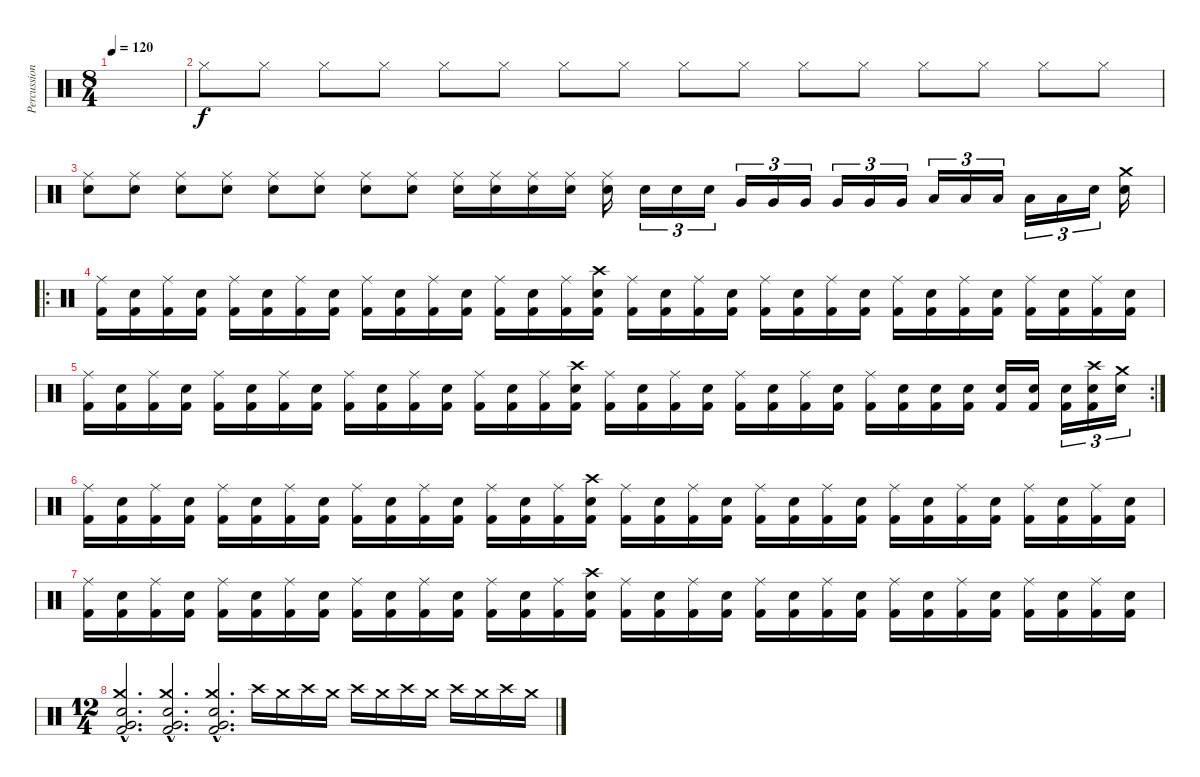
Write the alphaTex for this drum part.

\track ("Percussions" "Percussion") {instrument percussion}
\staff {score}
\articulation defaults
\ts (8 4)
\tempo 120
\clef neutral
\ks c
|
"Hi-Hat (closed)".8 "Hi-Hat (closed)".8 "Hi-Hat (closed)".8 "Hi-Hat (closed)".8 "Hi-Hat (closed)".8 "Hi-Hat (closed)".8 "Hi-Hat (closed)".8 "Hi-Hat (closed)".8 "Hi-Hat (closed)".8 "Hi-Hat (closed)".8 "Hi-Hat (closed)".8 "Hi-Hat (closed)".8 "Hi-Hat (closed)".8 "Hi-Hat (closed)".8 "Hi-Hat (closed)".8 "Hi-Hat (closed)".8 |
("Electric Snare (hit)" "Ride (middle)").8 ("Electric Snare (hit)" "Ride (middle)").8 ("Electric Snare (hit)" "Ride (middle)").8 ("Electric Snare (hit)" "Ride (middle)").8 ("Electric Snare (hit)" "Ride (middle)").8 ("Electric Snare (hit)" "Ride (middle)").8 ("Electric Snare (hit)" "Ride (middle)").8 ("Electric Snare (hit)" "Ride (middle)").8 ("Electric Snare (hit)" "Ride (middle)").16 ("Electric Snare (hit)" "Ride (middle)").16 ("Electric Snare (hit)" "Ride (middle)").16 ("Electric Snare (hit)" "Ride (middle)").16 ("Electric Snare (hit)" "Ride (middle)").16 "Electric Snare (hit)".16{tu (3 2)} "Electric Snare (hit)".16{tu (3 2)} "Electric Snare (hit)".16{tu (3 2)} "Very Low Tom (hit)".16{tu (3 2)} "Very Low Tom (hit)".16{tu (3 2)} "Very Low Tom (hit)".16{tu (3 2)} "Very Low Tom (hit)".16{tu (3 2)} "Very Low Tom (hit)".16{tu (3 2)} "Very Low Tom (hit)".16{tu (3 2)} "Low Tom (hit)".16{tu (3 2)} "Low Tom (hit)".16{tu (3 2)} "Low Tom (hit)".16{tu (3 2)} "Low Tom (hit)".16{tu (3 2)} "Low Tom (hit)".16{tu (3 2)} "Electric Snare (hit)".16{tu (3 2)} ("Electric Snare (hit)" "Crash medium (hit)").16 |
\ro
("Kick (hit) 2" "Ride (middle)").16 ("Kick (hit) 2" "Electric Snare (hit)").16 ("Kick (hit) 2" "Ride (middle)").16 ("Kick (hit) 2" "Electric Snare (hit)").16 ("Kick (hit) 2" "Ride (middle)").16 ("Kick (hit) 2" "Electric Snare (hit)").16 ("Kick (hit) 2" "Ride (middle)").16 ("Kick (hit) 2" "Electric Snare (hit)").16 ("Kick (hit) 2" "Ride (middle)").16 ("Kick (hit) 2" "Electric Snare (hit)").16 ("Kick (hit) 2" "Ride (middle)").16 ("Kick (hit) 2" "Electric Snare (hit)").16 ("Kick (hit) 2" "Ride (middle)").16 ("Kick (hit) 2" "Electric Snare (hit)").16 ("Kick (hit) 2" "Ride (middle)").16 ("Kick (hit) 2" "Electric Snare (hit)" "Crash high (hit)").16 ("Kick (hit) 2" "Ride (middle)").16 ("Kick (hit) 2" "Electric Snare (hit)").16 ("Kick (hit) 2" "Ride (middle)").16 ("Kick (hit) 2" "Electric Snare (hit)").16 ("Kick (hit) 2" "Ride (middle)").16 ("Kick (hit) 2" "Electric Snare (hit)").16 ("Kick (hit) 2" "Ride (middle)").16 ("Kick (hit) 2" "Electric Snare (hit)").16 ("Kick (hit) 2" "Ride (middle)").16 ("Kick (hit) 2" "Electric Snare (hit)").16 ("Kick (hit) 2" "Ride (middle)").16 ("Kick (hit) 2" "Electric Snare (hit)").16 ("Kick (hit) 2" "Ride (middle)").16 ("Kick (hit) 2" "Electric Snare (hit)").16 ("Kick (hit) 2" "Ride (middle)").16 ("Kick (hit) 2" "Electric Snare (hit)").16 |
\rc 2
("Kick (hit) 2" "Ride (middle)").16 ("Kick (hit) 2" "Electric Snare (hit)").16 ("Kick (hit) 2" "Ride (middle)").16 ("Kick (hit) 2" "Electric Snare (hit)").16 ("Kick (hit) 2" "Ride (middle)").16 ("Kick (hit) 2" "Electric Snare (hit)").16 ("Kick (hit) 2" "Ride (middle)").16 ("Kick (hit) 2" "Electric Snare (hit)").16 ("Kick (hit) 2" "Ride (middle)").16 ("Kick (hit) 2" "Electric Snare (hit)").16 ("Kick (hit) 2" "Ride (middle)").16 ("Kick (hit) 2" "Electric Snare (hit)").16 ("Kick (hit) 2" "Ride (middle)").16 ("Kick (hit) 2" "Electric Snare (hit)").16 ("Kick (hit) 2" "Ride (middle)").16 ("Kick (hit) 2" "Electric Snare (hit)" "Crash high (hit)").16 ("Kick (hit) 2" "Ride (middle)").16 ("Kick (hit) 2" "Electric Snare (hit)").16 ("Kick (hit) 2" "Ride (middle)").16 ("Kick (hit) 2" "Electric Snare (hit)").16 ("Kick (hit) 2" "Ride (middle)").16 ("Kick (hit) 2" "Electric Snare (hit)").16 ("Kick (hit) 2" "Ride (middle)").16 ("Kick (hit) 2" "Electric Snare (hit)").16 ("Kick (hit) 2" "Ride (middle)").16 ("Kick (hit) 2" "Electric Snare (hit)").16 ("Kick (hit) 2" "Electric Snare (hit)").16 ("Kick (hit) 2" "Electric Snare (hit)").16 ("Kick (hit) 2" "Electric Snare (hit)").16 ("Kick (hit) 2" "Electric Snare (hit)").16 ("Kick (hit) 2" "Electric Snare (hit)").16{tu (3 2)} ("Kick (hit) 2" "Crash high (hit)" "Electric Snare (hit)").16{tu (3 2)} ("Crash medium (hit)" "Electric Snare (hit)").16{tu (3 2)} |
("Kick (hit) 2" "Ride (middle)").16 ("Kick (hit) 2" "Electric Snare (hit)").16 ("Kick (hit) 2" "Ride (middle)").16 ("Kick (hit) 2" "Electric Snare (hit)").16 ("Kick (hit) 2" "Ride (middle)").16 ("Kick (hit) 2" "Electric Snare (hit)").16 ("Kick (hit) 2" "Ride (middle)").16 ("Kick (hit) 2" "Electric Snare (hit)").16 ("Kick (hit) 2" "Ride (middle)").16 ("Kick (hit) 2" "Electric Snare (hit)").16 ("Kick (hit) 2" "Ride (middle)").16 ("Kick (hit) 2" "Electric Snare (hit)").16 ("Kick (hit) 2" "Ride (middle)").16 ("Kick (hit) 2" "Electric Snare (hit)").16 ("Kick (hit) 2" "Ride (middle)").16 ("Kick (hit) 2" "Electric Snare (hit)" "Crash high (hit)").16 ("Kick (hit) 2" "Ride (middle)").16 ("Kick (hit) 2" "Electric Snare (hit)").16 ("Kick (hit) 2" "Ride (middle)").16 ("Kick (hit) 2" "Electric Snare (hit)").16 ("Kick (hit) 2" "Ride (middle)").16 ("Kick (hit) 2" "Electric Snare (hit)").16 ("Kick (hit) 2" "Ride (middle)").16 ("Kick (hit) 2" "Electric Snare (hit)").16 ("Kick (hit) 2" "Ride (middle)").16 ("Kick (hit) 2" "Electric Snare (hit)").16 ("Kick (hit) 2" "Ride (middle)").16 ("Kick (hit) 2" "Electric Snare (hit)").16 ("Kick (hit) 2" "Ride (middle)").16 ("Kick (hit) 2" "Electric Snare (hit)").16 ("Kick (hit) 2" "Ride (middle)").16 ("Kick (hit) 2" "Electric Snare (hit)").16 |
("Kick (hit) 2" "Ride (middle)").16 ("Kick (hit) 2" "Electric Snare (hit)").16 ("Kick (hit) 2" "Ride (middle)").16 ("Kick (hit) 2" "Electric Snare (hit)").16 ("Kick (hit) 2" "Ride (middle)").16 ("Kick (hit) 2" "Electric Snare (hit)").16 ("Kick (hit) 2" "Ride (middle)").16 ("Kick (hit) 2" "Electric Snare (hit)").16 ("Kick (hit) 2" "Ride (middle)").16 ("Kick (hit) 2" "Electric Snare (hit)").16 ("Kick (hit) 2" "Ride (middle)").16 ("Kick (hit) 2" "Electric Snare (hit)").16 ("Kick (hit) 2" "Ride (middle)").16 ("Kick (hit) 2" "Electric Snare (hit)").16 ("Kick (hit) 2" "Ride (middle)").16 ("Kick (hit) 2" "Electric Snare (hit)" "Crash high (hit)").16 ("Kick (hit) 2" "Ride (middle)").16 ("Kick (hit) 2" "Electric Snare (hit)").16 ("Kick (hit) 2" "Ride (middle)").16 ("Kick (hit) 2" "Electric Snare (hit)").16 ("Kick (hit) 2" "Ride (middle)").16 ("Kick (hit) 2" "Electric Snare (hit)").16 ("Kick (hit) 2" "Ride (middle)").16 ("Kick (hit) 2" "Electric Snare (hit)").16 ("Kick (hit) 2" "Ride (middle)").16 ("Kick (hit) 2" "Electric Snare (hit)").16 ("Kick (hit) 2" "Ride (middle)").16 ("Kick (hit) 2" "Electric Snare (hit)").16 ("Kick (hit) 2" "Ride (middle)").16 ("Kick (hit) 2" "Electric Snare (hit)").16 ("Kick (hit) 2" "Ride (middle)").16 ("Kick (hit) 2" "Electric Snare (hit)").16 |
\ts (12 4)
("Electric Snare (hit)"{hac} "Very Low Tom (hit)"{hac} "Kick (hit) 2"{hac} "Crash medium (hit)"{hac}).2{d} ("Electric Snare (hit)"{hac} "Very Low Tom (hit)"{hac} "Kick (hit) 2"{hac} "Crash medium (hit)"{hac}).2{d} ("Electric Snare (hit)"{hac} "Very Low Tom (hit)"{hac} "Kick (hit) 2"{hac} "Crash medium (hit)"{hac}).2{d} "Crash high (hit)".16 "Crash medium (hit)".16 "Crash high (hit)".16 "Crash medium (hit)".16 "Crash high (hit)".16 "Crash medium (hit)".16 "Crash high (hit)".16 "Crash medium (hit)".16 "Crash high (hit)".16 "Crash medium (hit)".16 "Crash high (hit)".16 "Crash medium (hit)".16
